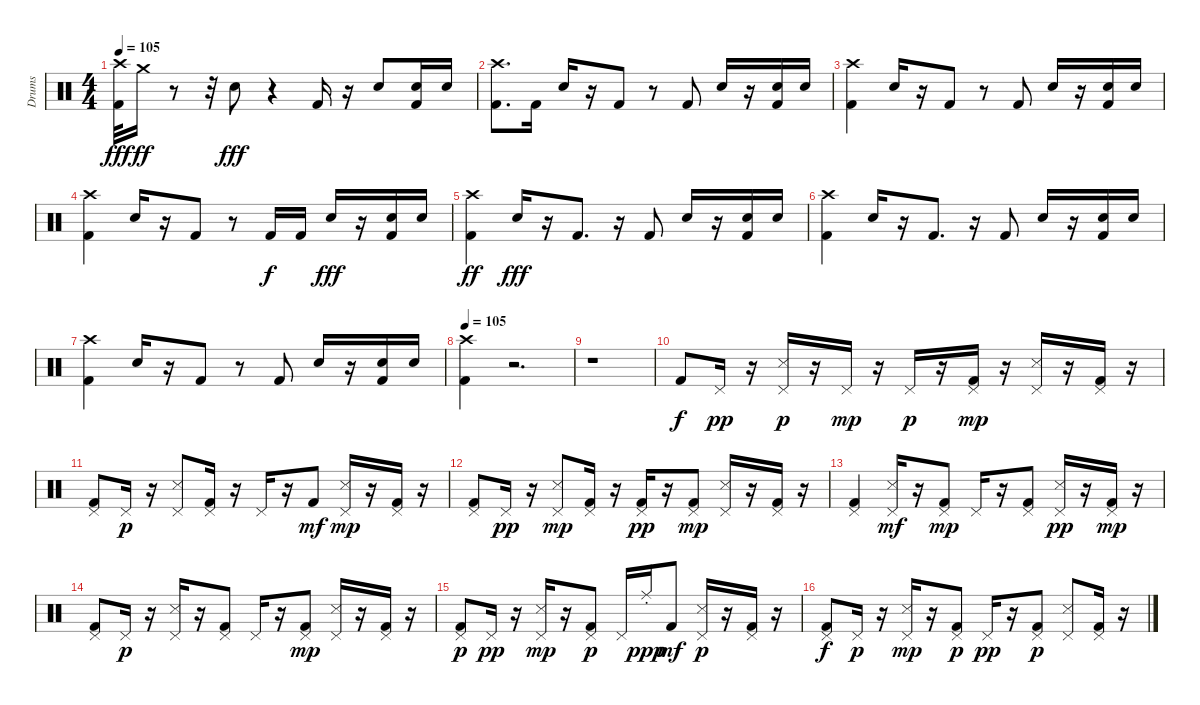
\track ("Drums" "Drums") {instrument percussion}
\staff {score}
\articulation defaults
\ts (4 4)
\tempo 105
\clef neutral
\ks c
("Kick (hit) 2" "Crash high (hit)").32{dy fff} "Crash medium (hit)".16{dy ff} r.8 r.32 "Snare (hit) 2".8{dy fff} r.4 "Kick (hit) 2".16 r.16 "Snare (hit) 2".8 ("Kick (hit) 2" "Snare (hit) 2").16 "Snare (hit) 2".16 |
("Crash high (hit)" "Kick (hit) 2").8{d} "Kick (hit) 2".16 "Snare (hit) 2".16 r.16 "Kick (hit) 2".8 r.8 "Kick (hit) 2".8 "Snare (hit) 2".16 r.16 ("Snare (hit) 2" "Kick (hit) 2").16 "Snare (hit) 2".16 |
("Crash high (hit)" "Kick (hit) 2").4 "Snare (hit) 2".16 r.16 "Kick (hit) 2".8 r.8 "Kick (hit) 2".8 "Snare (hit) 2".16 r.16 ("Snare (hit) 2" "Kick (hit) 2").16 "Snare (hit) 2".16 |
("Crash high (hit)" "Kick (hit) 2").4 "Snare (hit) 2".16 r.16 "Kick (hit) 2".8 r.8 "Kick (hit) 2".16{dy f} "Kick (hit) 2".16 "Snare (hit) 2".16{dy fff} r.16 ("Snare (hit) 2" "Kick (hit) 2").16 "Snare (hit) 2".16 |
("Crash high (hit)" "Kick (hit) 2").4{dy ff} "Snare (hit) 2".16{dy fff} r.16 "Kick (hit) 2".8{d} r.16 "Kick (hit) 2".8 "Snare (hit) 2".16 r.16 ("Snare (hit) 2" "Kick (hit) 2").16 "Snare (hit) 2".16 |
("Crash high (hit)" "Kick (hit) 2").4 "Snare (hit) 2".16 r.16 "Kick (hit) 2".8{d} r.16 "Kick (hit) 2".8 "Snare (hit) 2".16 r.16 ("Snare (hit) 2" "Kick (hit) 2").16 "Snare (hit) 2".16 |
("Crash high (hit)" "Kick (hit) 2").4 "Snare (hit) 2".16 r.16 "Kick (hit) 2".8 r.8 "Kick (hit) 2".8 "Snare (hit) 2".16 r.16 ("Snare (hit) 2" "Kick (hit) 2").16 "Snare (hit) 2".16 |
\tempo 105
("Kick (hit) 2" "Crash high (hit)").4 r.2{d} |
r.1 |
"Kick (hit) 2".8{dy f} "Pedal Hi-Hat (hit)".16{dy pp} r.16 ("Snare (side stick) 3" "Pedal Hi-Hat (hit)").16{dy p} r.16 "Pedal Hi-Hat (hit)".16{dy mp} r.16 "Pedal Hi-Hat (hit)".16{dy p} r.16 ("Kick (hit) 2" "Pedal Hi-Hat (hit)").16{dy mp} r.16 ("Snare (side stick) 3" "Pedal Hi-Hat (hit)").16 r.16 ("Kick (hit) 2" "Pedal Hi-Hat (hit)").16 r.16 |
("Kick (hit) 2" "Pedal Hi-Hat (hit)").8 "Pedal Hi-Hat (hit)".16{dy p} r.16 ("Snare (side stick) 3" "Pedal Hi-Hat (hit)").8 ("Kick (hit) 2" "Pedal Hi-Hat (hit)").16 r.16 "Pedal Hi-Hat (hit)".16 r.16 "Kick (hit) 2".8{dy mf} ("Snare (side stick) 3" "Pedal Hi-Hat (hit)").16{dy mp} r.16 ("Kick (hit) 2" "Pedal Hi-Hat (hit)").16 r.16 |
("Kick (hit) 2" "Pedal Hi-Hat (hit)").8 "Pedal Hi-Hat (hit)".16{dy pp} r.16 ("Snare (side stick) 3" "Pedal Hi-Hat (hit)").8{dy mp} ("Kick (hit) 2" "Pedal Hi-Hat (hit)").16 r.16 ("Kick (hit) 2" "Pedal Hi-Hat (hit)").16{dy pp} r.16 ("Kick (hit) 2" "Pedal Hi-Hat (hit)").8{dy mp} ("Snare (side stick) 3" "Pedal Hi-Hat (hit)").16 r.16 ("Kick (hit) 2" "Pedal Hi-Hat (hit)").16 r.16 |
("Kick (hit) 2" "Pedal Hi-Hat (hit)").4 ("Snare (side stick) 3" "Pedal Hi-Hat (hit)").16{dy mf} r.16 ("Kick (hit) 2" "Pedal Hi-Hat (hit)").8{dy mp} "Pedal Hi-Hat (hit)".16 r.16 ("Kick (hit) 2" "Pedal Hi-Hat (hit)").8 ("Snare (side stick) 3" "Pedal Hi-Hat (hit)").16{dy pp} r.16 ("Kick (hit) 2" "Pedal Hi-Hat (hit)").16{dy mp} r.16 |
("Kick (hit) 2" "Pedal Hi-Hat (hit)").8 "Pedal Hi-Hat (hit)".16{dy p} r.16 ("Snare (side stick) 3" "Pedal Hi-Hat (hit)").16 r.16 ("Kick (hit) 2" "Pedal Hi-Hat (hit)").8 "Pedal Hi-Hat (hit)".16 r.16 ("Kick (hit) 2" "Pedal Hi-Hat (hit)").8{dy mp} ("Snare (side stick) 3" "Pedal Hi-Hat (hit)").16 r.16 ("Kick (hit) 2" "Pedal Hi-Hat (hit)").16 r.16 |
("Kick (hit) 2" "Pedal Hi-Hat (hit)").8{dy p} "Pedal Hi-Hat (hit)".16{dy pp} r.16 ("Snare (side stick) 3" "Pedal Hi-Hat (hit)").16{dy mp} r.16 ("Kick (hit) 2" "Pedal Hi-Hat (hit)").8{dy p} "Pedal Hi-Hat (hit)".16 "Ride (choke)".16{dy ppp} "Kick (hit) 2".8{dy mf} ("Snare (side stick) 3" "Pedal Hi-Hat (hit)").16{dy p} r.16 ("Kick (hit) 2" "Pedal Hi-Hat (hit)").16 r.16 |
("Kick (hit) 2" "Pedal Hi-Hat (hit)").8{dy f} "Pedal Hi-Hat (hit)".16{dy p} r.16 ("Snare (side stick) 3" "Pedal Hi-Hat (hit)").16{dy mp} r.16 ("Kick (hit) 2" "Pedal Hi-Hat (hit)").8{dy p} "Pedal Hi-Hat (hit)".16{dy pp} r.16 ("Kick (hit) 2" "Pedal Hi-Hat (hit)").8{dy p} ("Snare (side stick) 3" "Pedal Hi-Hat (hit)").8 ("Kick (hit) 2" "Pedal Hi-Hat (hit)").16 r.16
